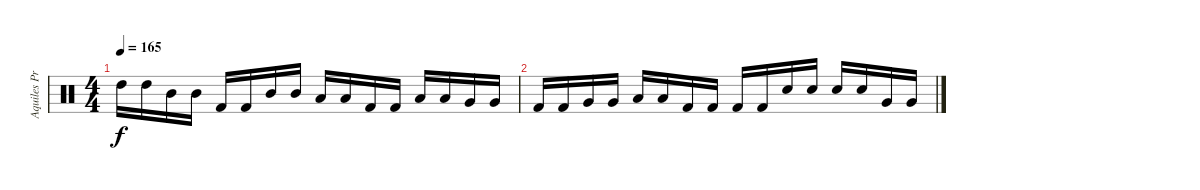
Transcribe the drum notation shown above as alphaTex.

\track ("Aquiles Priester" "Aquiles Pr") {instrument percussion}
\staff {score}
\articulation defaults
\ts (4 4)
\tempo 165
\clef neutral
\ks c "High Tom (hit)".16{dy f} "High Tom (hit)".16 "Mid Tom (hit)".16 "Mid Tom (hit)".16 "Kick (hit) 2".16 "Kick (hit) 2".16 "Mid Tom (hit)".16 "Mid Tom (hit)".16 "Low Tom (hit)".16 "Low Tom (hit)".16 "Kick (hit) 2".16 "Kick (hit) 2".16 "Low Tom (hit)".16 "Low Tom (hit)".16 "Very Low Tom (hit)".16 "Very Low Tom (hit)".16
|
"Kick (hit) 2".16 "Kick (hit) 2".16 "Very Low Tom (hit)".16 "Very Low Tom (hit)".16 "Low Floor Tom (hit)".16 "Low Floor Tom (hit)".16 "Kick (hit) 2".16 "Kick (hit) 2".16 "Kick (hit) 2".16 "Kick (hit) 2".16 "Electric Snare (hit)".16 "Electric Snare (hit)".16 "Electric Snare (hit)".16 "Electric Snare (hit)".16 "Very Low Tom (hit)".16 "Very Low Tom (hit)".16
